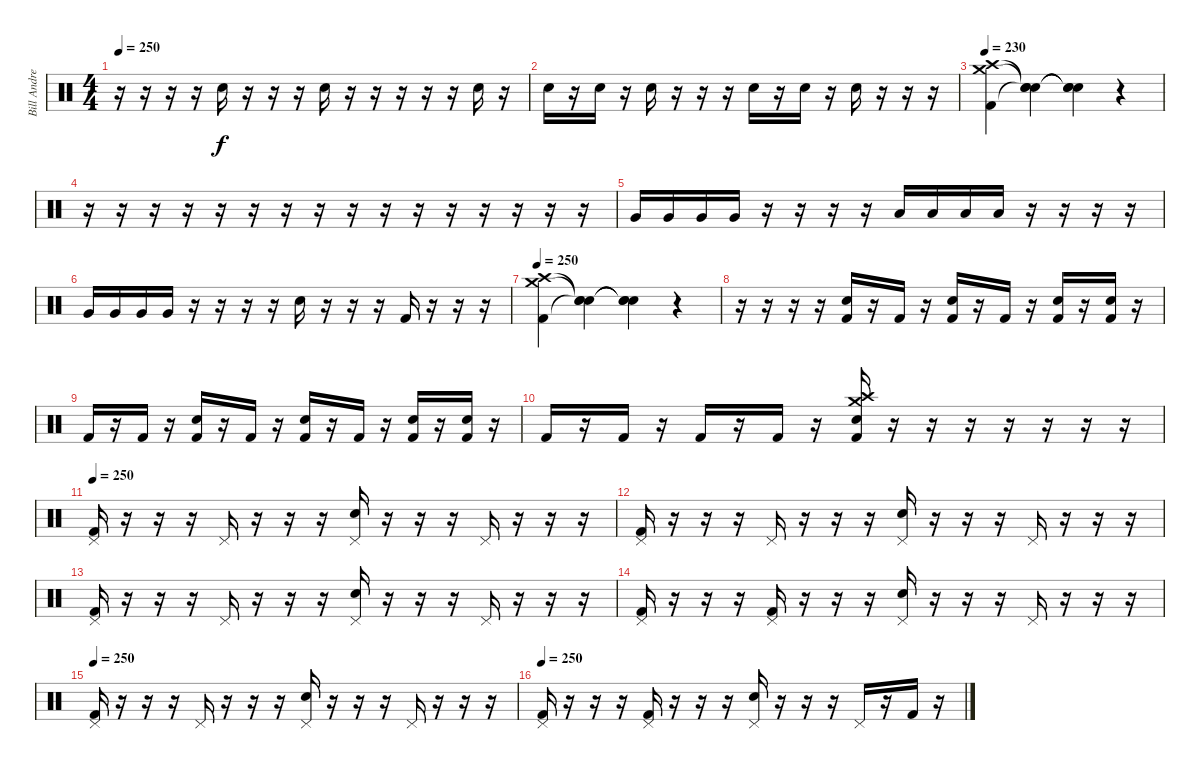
\track ("Bill Andrews" "Bill Andre") {instrument percussion}
\staff {score}
\articulation defaults
\ts (4 4)
\tempo 250
\clef neutral
\ks c
r.16{dy f} r.16 r.16 r.16 "Snare (hit) 2".16 r.16 r.16 r.16 "Snare (hit) 2".16 r.16 r.16 r.16 r.16 r.16 "Snare (hit) 2".16 r.16 |
"Snare (hit) 2".16 r.16 "Snare (hit) 2".16 r.16 "Snare (hit) 2".16 r.16 r.16 r.16 "Snare (hit) 2".16 r.16 "Snare (hit) 2".16 r.16 "Snare (hit) 2".16 r.16 r.16 r.16 |
\tempo 230
("Crash high (hit)" "Crash medium (hit)" "Kick (hit) 2").4 ("Snare (hit)"{t} "Snare (hit)"{t} "Snare (hit)"{t}).4 ("Snare (hit)"{t} "Snare (hit)"{t} "Snare (hit)"{t}).4 r.4 |
r.16 r.16 r.16 r.16 r.16 r.16 r.16 r.16 r.16 r.16 r.16 r.16 r.16 r.16 r.16 r.16 |
"Very Low Tom (hit)".16 "Very Low Tom (hit)".16 "Very Low Tom (hit)".16 "Very Low Tom (hit)".16 r.16 r.16 r.16 r.16 "Low Tom (hit)".16 "Low Tom (hit)".16 "Low Tom (hit)".16 "Low Tom (hit)".16 r.16 r.16 r.16 r.16 |
"Very Low Tom (hit)".16 "Very Low Tom (hit)".16 "Very Low Tom (hit)".16 "Very Low Tom (hit)".16 r.16 r.16 r.16 r.16 "Snare (hit) 2".16 r.16 r.16 r.16 "Kick (hit) 2".16 r.16 r.16 r.16 |
\tempo 250
("Crash high (hit)" "Crash medium (hit)" "Kick (hit) 2").4 ("Snare (hit)"{t} "Snare (hit)"{t} "Snare (hit)"{t}).4 ("Snare (hit)"{t} "Snare (hit)"{t} "Snare (hit)"{t}).4 r.4 |
r.16 r.16 r.16 r.16 ("Snare (hit) 2" "Kick (hit) 2").16 r.16 "Kick (hit) 2".16 r.16 ("Snare (hit) 2" "Kick (hit) 2").16 r.16 "Kick (hit) 2".16 r.16 ("Snare (hit) 2" "Kick (hit) 2").16 r.16 ("Snare (hit) 2" "Kick (hit) 2").16 r.16 |
"Kick (hit) 2".16 r.16 "Kick (hit) 2".16 r.16 ("Snare (hit) 2" "Kick (hit) 2").16 r.16 "Kick (hit) 2".16 r.16 ("Snare (hit) 2" "Kick (hit) 2").16 r.16 "Kick (hit) 2".16 r.16 ("Snare (hit) 2" "Kick (hit) 2").16 r.16 ("Snare (hit) 2" "Kick (hit) 2").16 r.16 |
"Kick (hit) 2".16 r.16 "Kick (hit) 2".16 r.16 "Kick (hit) 2".16 r.16 "Kick (hit) 2".16 r.16 ("Crash high (hit)" "Crash medium (hit)" "Snare (hit) 2" "Kick (hit) 2").16 r.16 r.16 r.16 r.16 r.16 r.16 r.16 |
\tempo 250
("Pedal Hi-Hat (hit)" "Kick (hit) 2").16 r.16 r.16 r.16 "Pedal Hi-Hat (hit)".16 r.16 r.16 r.16 ("Pedal Hi-Hat (hit)" "Snare (hit) 2").16 r.16 r.16 r.16 "Pedal Hi-Hat (hit)".16 r.16 r.16 r.16 |
("Pedal Hi-Hat (hit)" "Kick (hit) 2").16 r.16 r.16 r.16 "Pedal Hi-Hat (hit)".16 r.16 r.16 r.16 ("Pedal Hi-Hat (hit)" "Snare (hit) 2").16 r.16 r.16 r.16 "Pedal Hi-Hat (hit)".16 r.16 r.16 r.16 |
("Pedal Hi-Hat (hit)" "Kick (hit) 2").16 r.16 r.16 r.16 "Pedal Hi-Hat (hit)".16 r.16 r.16 r.16 ("Pedal Hi-Hat (hit)" "Snare (hit) 2").16 r.16 r.16 r.16 "Pedal Hi-Hat (hit)".16 r.16 r.16 r.16 |
("Pedal Hi-Hat (hit)" "Kick (hit) 2").16 r.16 r.16 r.16 ("Pedal Hi-Hat (hit)" "Kick (hit) 2").16 r.16 r.16 r.16 ("Pedal Hi-Hat (hit)" "Snare (hit) 2").16 r.16 r.16 r.16 "Pedal Hi-Hat (hit)".16 r.16 r.16 r.16 |
\tempo 250
("Pedal Hi-Hat (hit)" "Kick (hit) 2").16 r.16 r.16 r.16 "Pedal Hi-Hat (hit)".16 r.16 r.16 r.16 ("Pedal Hi-Hat (hit)" "Snare (hit) 2").16 r.16 r.16 r.16 "Pedal Hi-Hat (hit)".16 r.16 r.16 r.16 |
\tempo 250
("Pedal Hi-Hat (hit)" "Kick (hit) 2").16 r.16 r.16 r.16 ("Pedal Hi-Hat (hit)" "Kick (hit) 2").16 r.16 r.16 r.16 ("Pedal Hi-Hat (hit)" "Snare (hit) 2").16 r.16 r.16 r.16 "Pedal Hi-Hat (hit)".16 r.16 "Kick (hit) 2".16 r.16
